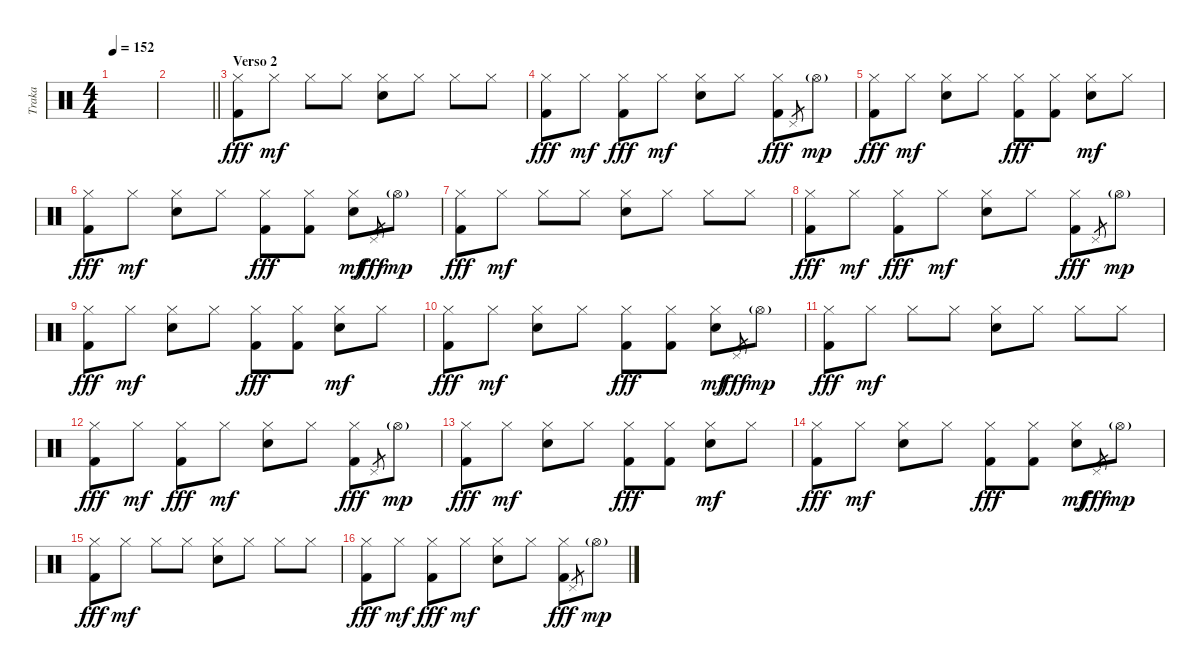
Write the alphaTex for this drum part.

\track ("Traka" "Traka") {instrument percussion}
\staff {score}
\articulation defaults
\ts (4 4)
\tempo 152
\clef neutral
\ks c
|
\barLineRight lightlight
|
\section ("" "Verso 2")
("Hi-Hat (closed)" "Kick (hit) 2").8{dy fff} "Hi-Hat (closed)".8{dy mf} "Hi-Hat (closed)".8 "Hi-Hat (closed)".8 ("Hi-Hat (closed)" "Electric Snare (hit)").8 "Hi-Hat (closed)".8 "Hi-Hat (closed)".8 "Hi-Hat (closed)".8 |
("Hi-Hat (closed)" "Kick (hit) 2").8{dy fff} "Hi-Hat (closed)".8{dy mf} ("Hi-Hat (closed)" "Kick (hit) 2").8{dy fff} "Hi-Hat (closed)".8{dy mf} ("Hi-Hat (closed)" "Electric Snare (hit)").8 "Hi-Hat (closed)".8 ("Hi-Hat (closed)" "Kick (hit) 2").8{dy fff} "Pedal Hi-Hat (hit)".8{gr} "Hi-Hat (open)"{g}.8{dy mp} |
("Hi-Hat (closed)" "Kick (hit) 2").8{dy fff} "Hi-Hat (closed)".8{dy mf} ("Hi-Hat (closed)" "Electric Snare (hit)").8 "Hi-Hat (closed)".8 ("Hi-Hat (closed)" "Kick (hit) 2").8{dy fff} ("Hi-Hat (closed)" "Kick (hit) 2").8 ("Hi-Hat (closed)" "Electric Snare (hit)").8{dy mf} "Hi-Hat (closed)".8 |
("Hi-Hat (closed)" "Kick (hit) 2").8{dy fff} "Hi-Hat (closed)".8{dy mf} ("Hi-Hat (closed)" "Electric Snare (hit)").8 "Hi-Hat (closed)".8 ("Hi-Hat (closed)" "Kick (hit) 2").8{dy fff} ("Hi-Hat (closed)" "Kick (hit) 2").8 ("Hi-Hat (closed)" "Electric Snare (hit)").8{dy mf} "Pedal Hi-Hat (hit)".8{gr dy fff} "Hi-Hat (open)"{g}.8{dy mp} |
("Hi-Hat (closed)" "Kick (hit) 2").8{dy fff} "Hi-Hat (closed)".8{dy mf} "Hi-Hat (closed)".8 "Hi-Hat (closed)".8 ("Hi-Hat (closed)" "Electric Snare (hit)").8 "Hi-Hat (closed)".8 "Hi-Hat (closed)".8 "Hi-Hat (closed)".8 |
("Hi-Hat (closed)" "Kick (hit) 2").8{dy fff} "Hi-Hat (closed)".8{dy mf} ("Hi-Hat (closed)" "Kick (hit) 2").8{dy fff} "Hi-Hat (closed)".8{dy mf} ("Hi-Hat (closed)" "Electric Snare (hit)").8 "Hi-Hat (closed)".8 ("Hi-Hat (closed)" "Kick (hit) 2").8{dy fff} "Pedal Hi-Hat (hit)".8{gr} "Hi-Hat (open)"{g}.8{dy mp} |
("Hi-Hat (closed)" "Kick (hit) 2").8{dy fff} "Hi-Hat (closed)".8{dy mf} ("Hi-Hat (closed)" "Electric Snare (hit)").8 "Hi-Hat (closed)".8 ("Hi-Hat (closed)" "Kick (hit) 2").8{dy fff} ("Hi-Hat (closed)" "Kick (hit) 2").8 ("Hi-Hat (closed)" "Electric Snare (hit)").8{dy mf} "Hi-Hat (closed)".8 |
("Hi-Hat (closed)" "Kick (hit) 2").8{dy fff} "Hi-Hat (closed)".8{dy mf} ("Hi-Hat (closed)" "Electric Snare (hit)").8 "Hi-Hat (closed)".8 ("Hi-Hat (closed)" "Kick (hit) 2").8{dy fff} ("Hi-Hat (closed)" "Kick (hit) 2").8 ("Hi-Hat (closed)" "Electric Snare (hit)").8{dy mf} "Pedal Hi-Hat (hit)".8{gr dy fff} "Hi-Hat (open)"{g}.8{dy mp} |
("Hi-Hat (closed)" "Kick (hit) 2").8{dy fff} "Hi-Hat (closed)".8{dy mf} "Hi-Hat (closed)".8 "Hi-Hat (closed)".8 ("Hi-Hat (closed)" "Electric Snare (hit)").8 "Hi-Hat (closed)".8 "Hi-Hat (closed)".8 "Hi-Hat (closed)".8 |
("Hi-Hat (closed)" "Kick (hit) 2").8{dy fff} "Hi-Hat (closed)".8{dy mf} ("Hi-Hat (closed)" "Kick (hit) 2").8{dy fff} "Hi-Hat (closed)".8{dy mf} ("Hi-Hat (closed)" "Electric Snare (hit)").8 "Hi-Hat (closed)".8 ("Hi-Hat (closed)" "Kick (hit) 2").8{dy fff} "Pedal Hi-Hat (hit)".8{gr} "Hi-Hat (open)"{g}.8{dy mp} |
("Hi-Hat (closed)" "Kick (hit) 2").8{dy fff} "Hi-Hat (closed)".8{dy mf} ("Hi-Hat (closed)" "Electric Snare (hit)").8 "Hi-Hat (closed)".8 ("Hi-Hat (closed)" "Kick (hit) 2").8{dy fff} ("Hi-Hat (closed)" "Kick (hit) 2").8 ("Hi-Hat (closed)" "Electric Snare (hit)").8{dy mf} "Hi-Hat (closed)".8 |
("Hi-Hat (closed)" "Kick (hit) 2").8{dy fff} "Hi-Hat (closed)".8{dy mf} ("Hi-Hat (closed)" "Electric Snare (hit)").8 "Hi-Hat (closed)".8 ("Hi-Hat (closed)" "Kick (hit) 2").8{dy fff} ("Hi-Hat (closed)" "Kick (hit) 2").8 ("Hi-Hat (closed)" "Electric Snare (hit)").8{dy mf} "Pedal Hi-Hat (hit)".8{gr dy fff} "Hi-Hat (open)"{g}.8{dy mp} |
("Hi-Hat (closed)" "Kick (hit) 2").8{dy fff} "Hi-Hat (closed)".8{dy mf} "Hi-Hat (closed)".8 "Hi-Hat (closed)".8 ("Hi-Hat (closed)" "Electric Snare (hit)").8 "Hi-Hat (closed)".8 "Hi-Hat (closed)".8 "Hi-Hat (closed)".8 |
("Hi-Hat (closed)" "Kick (hit) 2").8{dy fff} "Hi-Hat (closed)".8{dy mf} ("Hi-Hat (closed)" "Kick (hit) 2").8{dy fff} "Hi-Hat (closed)".8{dy mf} ("Hi-Hat (closed)" "Electric Snare (hit)").8 "Hi-Hat (closed)".8 ("Hi-Hat (closed)" "Kick (hit) 2").8{dy fff} "Pedal Hi-Hat (hit)".8{gr} "Hi-Hat (open)"{g}.8{dy mp}
